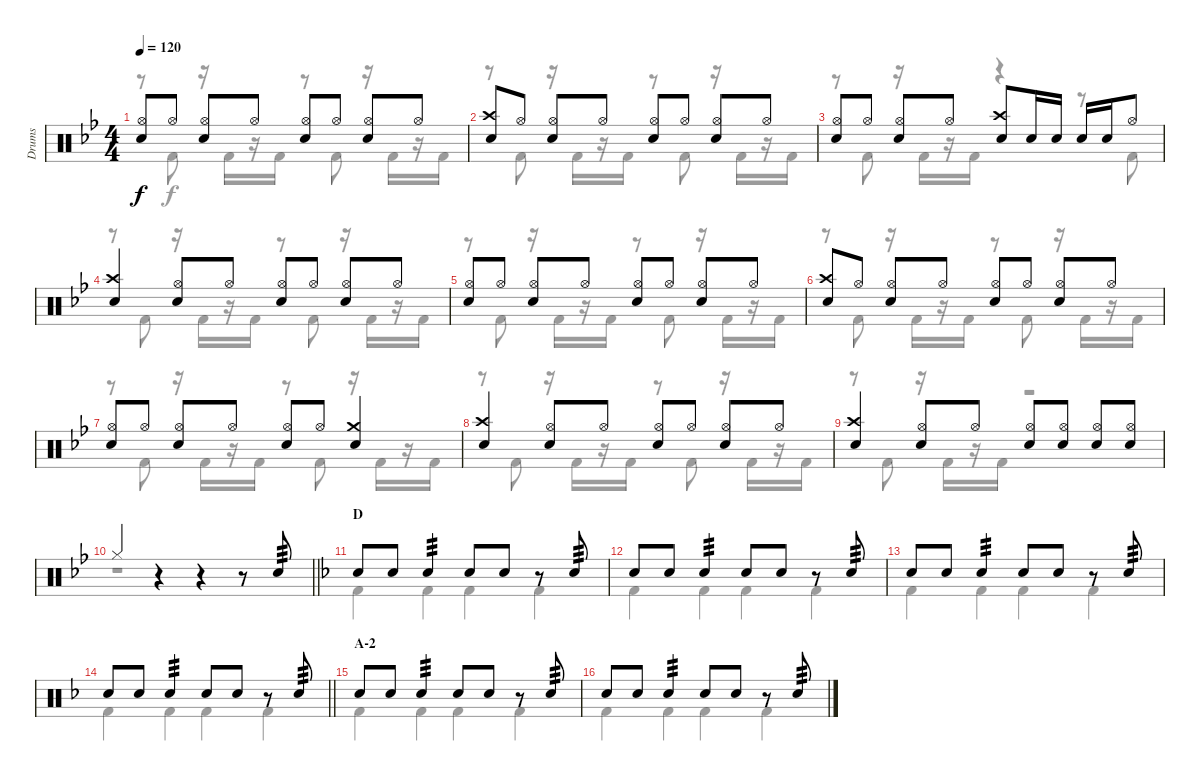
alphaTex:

\track ("Drums" "Drums") {instrument percussion}
\staff {score}
\articulation defaults
\voice
\ts (4 4)
\tempo 120
\clef neutral
\ks bb
("Hi-Hat (open)" "Snare (hit) 2").8{dy f} "Hi-Hat (open)".8 ("Hi-Hat (open)" "Snare (hit) 2").8 "Hi-Hat (open)".8 ("Hi-Hat (open)" "Snare (hit) 2").8 "Hi-Hat (open)".8 ("Hi-Hat (open)" "Snare (hit) 2").8 "Hi-Hat (open)".8 |
("Crash high (hit)" "Snare (hit) 2").8 "Hi-Hat (open)".8 ("Hi-Hat (open)" "Snare (hit) 2").8 "Hi-Hat (open)".8 ("Hi-Hat (open)" "Snare (hit) 2").8 "Hi-Hat (open)".8 ("Hi-Hat (open)" "Snare (hit) 2").8 "Hi-Hat (open)".8 |
("Hi-Hat (open)" "Snare (hit) 2").8 "Hi-Hat (open)".8 ("Hi-Hat (open)" "Snare (hit) 2").8 "Hi-Hat (open)".8 ("Crash high (hit)" "Snare (hit) 2").8 "Snare (hit) 2".16 "Snare (hit) 2".16 "Snare (hit) 2".16 "Snare (hit) 2".16 "Hi-Hat (open)".8 |
("Crash high (hit)" "Snare (hit) 2").4 ("Hi-Hat (open)" "Snare (hit) 2").8 "Hi-Hat (open)".8 ("Hi-Hat (open)" "Snare (hit) 2").8 "Hi-Hat (open)".8 ("Hi-Hat (open)" "Snare (hit) 2").8 "Hi-Hat (open)".8 |
("Hi-Hat (open)" "Snare (hit) 2").8 "Hi-Hat (open)".8 ("Hi-Hat (open)" "Snare (hit) 2").8 "Hi-Hat (open)".8 ("Hi-Hat (open)" "Snare (hit) 2").8 "Hi-Hat (open)".8 ("Hi-Hat (open)" "Snare (hit) 2").8 "Hi-Hat (open)".8 |
("Crash high (hit)" "Snare (hit) 2").8 "Hi-Hat (open)".8 ("Hi-Hat (open)" "Snare (hit) 2").8 "Hi-Hat (open)".8 ("Hi-Hat (open)" "Snare (hit) 2").8 "Hi-Hat (open)".8 ("Hi-Hat (open)" "Snare (hit) 2").8 "Hi-Hat (open)".8 |
("Hi-Hat (open)" "Snare (hit) 2").8 "Hi-Hat (open)".8 ("Hi-Hat (open)" "Snare (hit) 2").8 "Hi-Hat (open)".8 ("Hi-Hat (open)" "Snare (hit) 2").8 "Hi-Hat (open)".8 ("Crash medium (hit)" "Snare (hit) 2").4 |
("Crash high (hit)" "Snare (hit) 2").4 ("Hi-Hat (open)" "Snare (hit) 2").8 "Hi-Hat (open)".8 ("Hi-Hat (open)" "Snare (hit) 2").8 "Hi-Hat (open)".8 ("Hi-Hat (open)" "Snare (hit) 2").8 "Hi-Hat (open)".8 |
("Crash high (hit)" "Snare (hit) 2").4 ("Hi-Hat (open)" "Snare (hit) 2").8 "Hi-Hat (open)".8 ("Hi-Hat (open)" "Snare (hit) 2").8 ("Hi-Hat (open)" "Snare (hit) 2").8 ("Hi-Hat (open)" "Snare (hit) 2").8 ("Hi-Hat (open)" "Snare (hit) 2").8 |
\barLineRight lightlight "Hi-Hat (closed)".4
r.4 r.4 r.8 "Snare (hit) 2".8{tp 3} |
\section ("" "D")
\ks f "Snare (hit) 2".8 "Snare (hit) 2".8 "Snare (hit) 2".4{tp 3} "Snare (hit) 2".8 "Snare (hit) 2".8
r.8 "Snare (hit) 2".8{tp 3} |
"Snare (hit) 2".8 "Snare (hit) 2".8 "Snare (hit) 2".4{tp 3} "Snare (hit) 2".8 "Snare (hit) 2".8 r.8 "Snare (hit) 2".8{tp 3} |
"Snare (hit) 2".8 "Snare (hit) 2".8 "Snare (hit) 2".4{tp 3} "Snare (hit) 2".8 "Snare (hit) 2".8 r.8 "Snare (hit) 2".8{tp 3} |
\barLineRight lightlight "Snare (hit) 2".8 "Snare (hit) 2".8 "Snare (hit) 2".4{tp 3} "Snare (hit) 2".8 "Snare (hit) 2".8
r.8 "Snare (hit) 2".8{tp 3} |
\section ("" "A-2")
"Snare (hit) 2".8 "Snare (hit) 2".8 "Snare (hit) 2".4{tp 3} "Snare (hit) 2".8 "Snare (hit) 2".8 r.8 "Snare (hit) 2".8{tp 3} |
"Snare (hit) 2".8 "Snare (hit) 2".8 "Snare (hit) 2".4{tp 3} "Snare (hit) 2".8 "Snare (hit) 2".8 r.8 "Snare (hit) 2".8{tp 3}
\voice
\clef neutral
\ottava regular
\simile none
\ks bb
r.8{dy f} "Kick (hit) 2".8 r.16 "Kick (hit) 2".16 r.16 "Kick (hit) 2".16 r.8 "Kick (hit) 2".8 r.16 "Kick (hit) 2".16 r.16 "Kick (hit) 2".16 |
r.8 "Kick (hit) 2".8 r.16 "Kick (hit) 2".16 r.16 "Kick (hit) 2".16 r.8 "Kick (hit) 2".8 r.16 "Kick (hit) 2".16 r.16 "Kick (hit) 2".16 |
r.8 "Kick (hit) 2".8 r.16 "Kick (hit) 2".16 r.16 "Kick (hit) 2".16 r.4 r.8 "Kick (hit) 2".8 |
r.8 "Kick (hit) 2".8 r.16 "Kick (hit) 2".16 r.16 "Kick (hit) 2".16 r.8 "Kick (hit) 2".8 r.16 "Kick (hit) 2".16 r.16 "Kick (hit) 2".16 |
r.8 "Kick (hit) 2".8 r.16 "Kick (hit) 2".16 r.16 "Kick (hit) 2".16 r.8 "Kick (hit) 2".8 r.16 "Kick (hit) 2".16 r.16 "Kick (hit) 2".16 |
r.8 "Kick (hit) 2".8 r.16 "Kick (hit) 2".16 r.16 "Kick (hit) 2".16 r.8 "Kick (hit) 2".8 r.16 "Kick (hit) 2".16 r.16 "Kick (hit) 2".16 |
r.8 "Kick (hit) 2".8 r.16 "Kick (hit) 2".16 r.16 "Kick (hit) 2".16 r.8 "Kick (hit) 2".8 r.16 "Kick (hit) 2".16 r.16 "Kick (hit) 2".16 |
r.8 "Kick (hit) 2".8 r.16 "Kick (hit) 2".16 r.16 "Kick (hit) 2".16 r.8 "Kick (hit) 2".8 r.16 "Kick (hit) 2".16 r.16 "Kick (hit) 2".16 |
r.8 "Kick (hit) 2".8 r.16 "Kick (hit) 2".16 r.16 "Kick (hit) 2".16 r.2 |
\barLineRight lightlight
r.1 |
\ks f "Kick (hit) 2".4 "Kick (hit) 2".4 "Kick (hit) 2".4 "Kick (hit) 2".4
|
"Kick (hit) 2".4 "Kick (hit) 2".4 "Kick (hit) 2".4 "Kick (hit) 2".4 |
"Kick (hit) 2".4 "Kick (hit) 2".4 "Kick (hit) 2".4 "Kick (hit) 2".4 |
\barLineRight lightlight "Kick (hit) 2".4 "Kick (hit) 2".4 "Kick (hit) 2".4 "Kick (hit) 2".4
|
"Kick (hit) 2".4 "Kick (hit) 2".4 "Kick (hit) 2".4 "Kick (hit) 2".4 |
"Kick (hit) 2".4 "Kick (hit) 2".4 "Kick (hit) 2".4 "Kick (hit) 2".4
